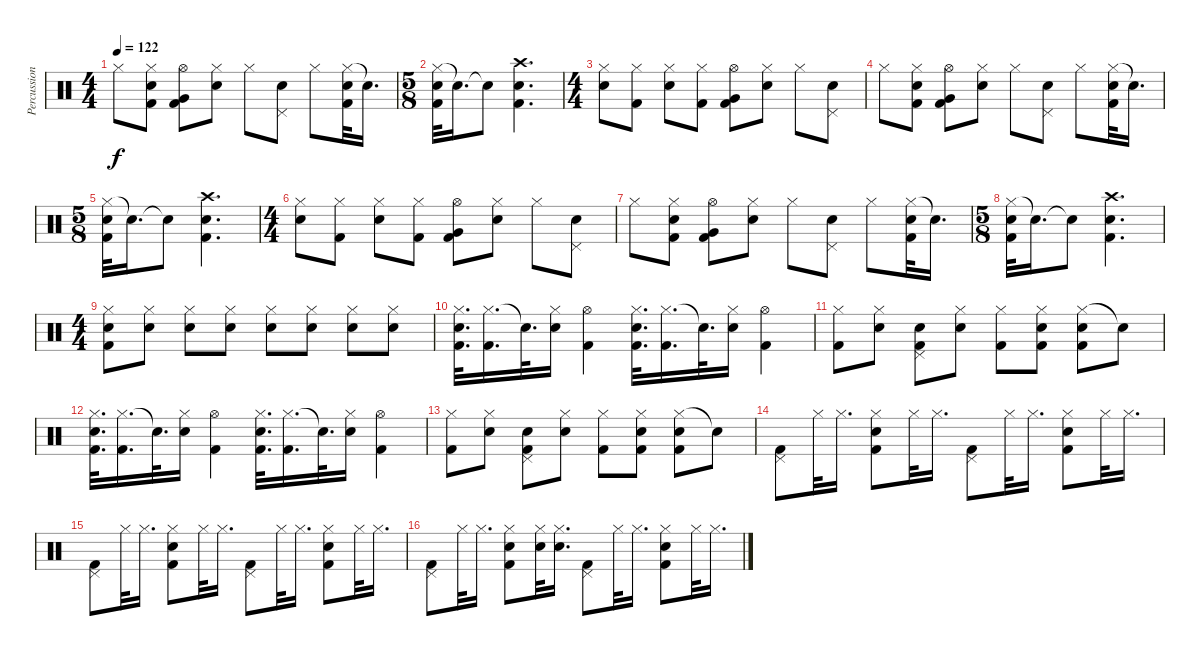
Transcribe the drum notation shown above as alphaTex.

\track ("Percussion" "Percussion") {instrument percussion}
\staff {score}
\articulation defaults
\ts (4 4)
\tempo 122
\clef neutral
\ks c "Hi-Hat (closed)".8{dy f}
("Hi-Hat (closed)" "Snare (hit) 2" "Kick (hit) 2").8 ("Hi-Hat (open)" "Very Low Tom (hit)" "Kick (hit) 2").8 ("Hi-Hat (closed)" "Snare (hit) 2").8 "Hi-Hat (closed)".8 ("Pedal Hi-Hat (hit)" "Snare (hit) 2").8 "Hi-Hat (closed)".8 ("Hi-Hat (closed)" "Snare (hit) 2" "Kick (hit) 2").32 "Electric Snare (hit)"{t}.16{d} |
\ts (5 8)
("Hi-Hat (closed)" "Snare (hit) 2" "Kick (hit) 2").32 "Electric Snare (hit)"{t}.16{d} "Electric Snare (hit)"{t}.8 ("Crash high (hit)" "Snare (hit) 2" "Kick (hit) 2").4{d} |
\ts (4 4)
("Hi-Hat (closed)" "Snare (hit) 2").8 ("Hi-Hat (closed)" "Kick (hit) 2").8 ("Hi-Hat (closed)" "Snare (hit) 2").8 ("Hi-Hat (closed)" "Kick (hit) 2").8 ("Hi-Hat (open)" "Very Low Tom (hit)" "Kick (hit) 2").8 ("Hi-Hat (closed)" "Snare (hit) 2").8 "Hi-Hat (closed)".8 ("Pedal Hi-Hat (hit)" "Snare (hit) 2").8 |
"Hi-Hat (closed)".8 ("Hi-Hat (closed)" "Snare (hit) 2" "Kick (hit) 2").8 ("Hi-Hat (open)" "Very Low Tom (hit)" "Kick (hit) 2").8 ("Hi-Hat (closed)" "Snare (hit) 2").8 "Hi-Hat (closed)".8 ("Pedal Hi-Hat (hit)" "Snare (hit) 2").8 "Hi-Hat (closed)".8 ("Hi-Hat (closed)" "Snare (hit) 2" "Kick (hit) 2").32 "Electric Snare (hit)"{t}.16{d} |
\ts (5 8)
("Hi-Hat (closed)" "Snare (hit) 2" "Kick (hit) 2").32 "Electric Snare (hit)"{t}.16{d} "Electric Snare (hit)"{t}.8 ("Crash high (hit)" "Snare (hit) 2" "Kick (hit) 2").4{d} |
\ts (4 4)
("Hi-Hat (closed)" "Snare (hit) 2").8 ("Hi-Hat (closed)" "Kick (hit) 2").8 ("Hi-Hat (closed)" "Snare (hit) 2").8 ("Hi-Hat (closed)" "Kick (hit) 2").8 ("Hi-Hat (open)" "Very Low Tom (hit)" "Kick (hit) 2").8 ("Hi-Hat (closed)" "Snare (hit) 2").8 "Hi-Hat (closed)".8 ("Pedal Hi-Hat (hit)" "Snare (hit) 2").8 |
"Hi-Hat (closed)".8 ("Hi-Hat (closed)" "Snare (hit) 2" "Kick (hit) 2").8 ("Hi-Hat (open)" "Very Low Tom (hit)" "Kick (hit) 2").8 ("Hi-Hat (closed)" "Snare (hit) 2").8 "Hi-Hat (closed)".8 ("Pedal Hi-Hat (hit)" "Snare (hit) 2").8 "Hi-Hat (closed)".8 ("Hi-Hat (closed)" "Snare (hit) 2" "Kick (hit) 2").32 "Electric Snare (hit)"{t}.16{d} |
\ts (5 8)
("Hi-Hat (closed)" "Snare (hit) 2" "Kick (hit) 2").32 "Electric Snare (hit)"{t}.16{d} "Electric Snare (hit)"{t}.8 ("Crash high (hit)" "Snare (hit) 2" "Kick (hit) 2").4{d} |
\ts (4 4)
("Hi-Hat (closed)" "Snare (hit) 2" "Kick (hit) 2").8 ("Hi-Hat (closed)" "Snare (hit) 2").8 ("Hi-Hat (closed)" "Snare (hit) 2").8 ("Hi-Hat (closed)" "Snare (hit) 2").8 ("Hi-Hat (closed)" "Snare (hit) 2").8 ("Hi-Hat (closed)" "Snare (hit) 2").8 ("Hi-Hat (closed)" "Snare (hit) 2").8 ("Hi-Hat (closed)" "Snare (hit) 2").8 |
("Hi-Hat (closed)" "Snare (hit) 2" "Kick (hit) 2").32{d} ("Hi-Hat (closed)" "Kick (hit) 2").16{d} "Snare (hit)"{t}.32{d} ("Hi-Hat (closed)" "Snare (hit) 2").16 ("Hi-Hat (open)" "Kick (hit) 2").4 ("Hi-Hat (closed)" "Snare (hit) 2" "Kick (hit) 2").32{d} ("Hi-Hat (closed)" "Kick (hit) 2").16{d} "Snare (hit)"{t}.32{d} ("Hi-Hat (closed)" "Snare (hit) 2").16 ("Hi-Hat (open)" "Kick (hit) 2").4 |
("Hi-Hat (closed)" "Kick (hit) 2").8 ("Hi-Hat (closed)" "Snare (hit) 2").8 ("Pedal Hi-Hat (hit)" "Snare (hit) 2" "Kick (hit) 2").8 ("Hi-Hat (closed)" "Snare (hit) 2").8 ("Hi-Hat (closed)" "Kick (hit) 2").8 ("Hi-Hat (closed)" "Snare (hit) 2" "Kick (hit) 2").8 ("Hi-Hat (closed)" "Snare (hit) 2" "Kick (hit) 2").8 "Snare (hit)"{t}.8 |
("Hi-Hat (closed)" "Snare (hit) 2" "Kick (hit) 2").32{d} ("Hi-Hat (closed)" "Kick (hit) 2").16{d} "Snare (hit)"{t}.32{d} ("Hi-Hat (closed)" "Snare (hit) 2").16 ("Hi-Hat (open)" "Kick (hit) 2").4 ("Hi-Hat (closed)" "Snare (hit) 2" "Kick (hit) 2").32{d} ("Hi-Hat (closed)" "Kick (hit) 2").16{d} "Snare (hit)"{t}.32{d} ("Hi-Hat (closed)" "Snare (hit) 2").16 ("Hi-Hat (open)" "Kick (hit) 2").4 |
("Hi-Hat (closed)" "Kick (hit) 2").8 ("Hi-Hat (closed)" "Snare (hit) 2").8 ("Pedal Hi-Hat (hit)" "Snare (hit) 2" "Kick (hit) 2").8 ("Hi-Hat (closed)" "Snare (hit) 2").8 ("Hi-Hat (closed)" "Kick (hit) 2").8 ("Hi-Hat (closed)" "Snare (hit) 2" "Kick (hit) 2").8 ("Hi-Hat (closed)" "Snare (hit) 2" "Kick (hit) 2").8 "Snare (hit)"{t}.8 |
("Pedal Hi-Hat (hit)" "Kick (hit) 2").8 "Hi-Hat (closed)".32 "Hi-Hat (closed)".16{d} ("Hi-Hat (closed)" "Snare (hit) 2" "Kick (hit) 2").8 "Hi-Hat (closed)".32 "Hi-Hat (closed)".16{d} ("Pedal Hi-Hat (hit)" "Kick (hit) 2").8 "Hi-Hat (closed)".32 "Hi-Hat (closed)".16{d} ("Hi-Hat (closed)" "Snare (hit) 2" "Kick (hit) 2").8 "Hi-Hat (closed)".32 "Hi-Hat (closed)".16{d} |
("Pedal Hi-Hat (hit)" "Kick (hit) 2").8 "Hi-Hat (closed)".32 "Hi-Hat (closed)".16{d} ("Hi-Hat (closed)" "Snare (hit) 2" "Kick (hit) 2").8 "Hi-Hat (closed)".32 "Hi-Hat (closed)".16{d} ("Pedal Hi-Hat (hit)" "Kick (hit) 2").8 "Hi-Hat (closed)".32 "Hi-Hat (closed)".16{d} ("Hi-Hat (closed)" "Snare (hit) 2" "Kick (hit) 2").8 "Hi-Hat (closed)".32 "Hi-Hat (closed)".16{d} |
("Pedal Hi-Hat (hit)" "Kick (hit) 2").8 "Hi-Hat (closed)".32 "Hi-Hat (closed)".16{d} ("Hi-Hat (closed)" "Snare (hit) 2" "Kick (hit) 2").8 ("Hi-Hat (closed)" "Snare (hit) 2").32 ("Hi-Hat (closed)" "Snare (hit) 2").16{d} ("Pedal Hi-Hat (hit)" "Kick (hit) 2").8 "Hi-Hat (closed)".32 "Hi-Hat (closed)".16{d} ("Hi-Hat (closed)" "Snare (hit) 2" "Kick (hit) 2").8 "Hi-Hat (closed)".32 "Hi-Hat (closed)".16{d}
